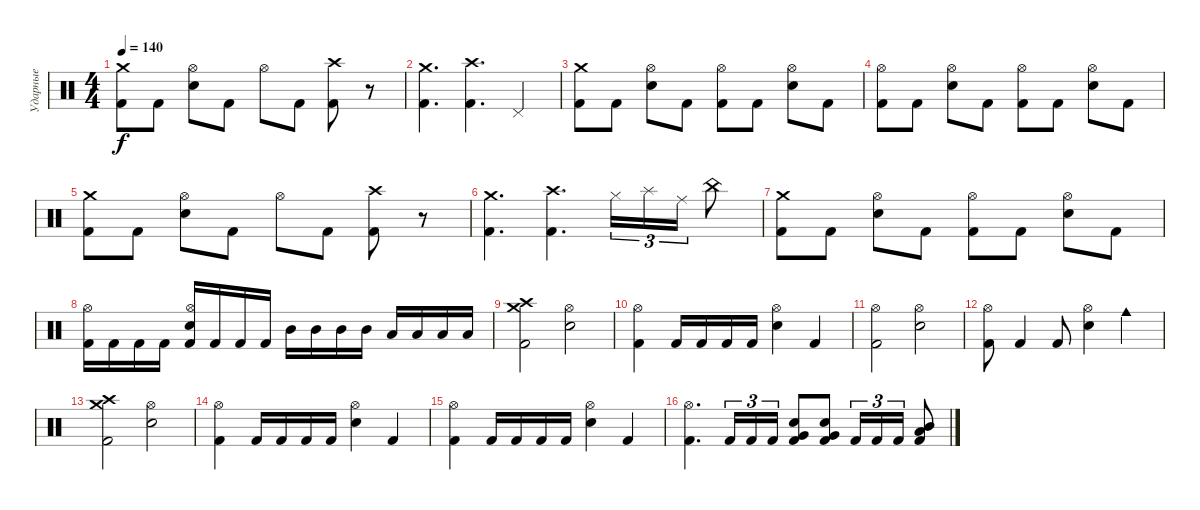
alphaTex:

\track ("Ударные" "Ударные") {instrument percussion}
\staff {score}
\articulation defaults
\ts (4 4)
\tempo 140
\clef neutral
\ks c
("Crash medium (hit)" "Kick (hit) 2").8{dy f} "Kick (hit) 2".8 ("Hi-Hat (open)" "Electric Snare (hit)").8 "Kick (hit) 2".8 "Hi-Hat (open)".8 "Kick (hit) 2".8 ("Crash high (hit)" "Kick (hit) 2").8 r.8 |
("Crash medium (hit)" "Kick (hit) 2").4{d} ("Crash high (hit)" "Kick (hit) 2").4{d} "Pedal Hi-Hat (hit)".4 |
("Crash medium (hit)" "Kick (hit) 2").8 "Kick (hit) 2".8 ("Hi-Hat (open)" "Electric Snare (hit)").8 "Kick (hit) 2".8 ("Hi-Hat (open)" "Kick (hit) 2").8 "Kick (hit) 2".8 ("Hi-Hat (open)" "Electric Snare (hit)").8 "Kick (hit) 2".8 |
("Hi-Hat (open)" "Kick (hit) 2").8 "Kick (hit) 2".8 ("Hi-Hat (open)" "Electric Snare (hit)").8 "Kick (hit) 2".8 ("Hi-Hat (open)" "Kick (hit) 2").8 "Kick (hit) 2".8 ("Hi-Hat (open)" "Electric Snare (hit)").8 "Kick (hit) 2".8 |
("Crash medium (hit)" "Kick (hit) 2").8 "Kick (hit) 2".8 ("Hi-Hat (open)" "Electric Snare (hit)").8 "Kick (hit) 2".8 "Hi-Hat (open)".8 "Kick (hit) 2".8 ("Crash high (hit)" "Kick (hit) 2").8 r.8 |
("Crash medium (hit)" "Kick (hit) 2").4{d} ("Crash high (hit)" "Kick (hit) 2").4{d} "Hi-Hat (closed)".16{tu (3 2)} "Splash (hit)".16{tu (3 2)} "Ride (middle)".16{tu (3 2)} "China (hit)".8 |
("Crash medium (hit)" "Kick (hit) 2").8 "Kick (hit) 2".8 ("Hi-Hat (open)" "Electric Snare (hit)").8 "Kick (hit) 2".8 ("Hi-Hat (open)" "Kick (hit) 2").8 "Kick (hit) 2".8 ("Hi-Hat (open)" "Electric Snare (hit)").8 "Kick (hit) 2".8 |
("Hi-Hat (open)" "Kick (hit) 2").16 "Kick (hit) 2".16 "Kick (hit) 2".16 "Kick (hit) 2".16 ("Hi-Hat (open)" "Electric Snare (hit)" "Kick (hit) 2").16 "Kick (hit) 2".16 "Kick (hit) 2".16 "Kick (hit) 2".16 "Mid Tom (hit)".16 "Mid Tom (hit)".16 "Mid Tom (hit)".16 "Mid Tom (hit)".16 "Low Tom (hit)".16 "Low Tom (hit)".16 "Low Tom (hit)".16 "Low Tom (hit)".16 |
("Crash medium (hit)" "Crash high (hit)" "Kick (hit) 2").2 ("Hi-Hat (open)" "Electric Snare (hit)").2 |
("Hi-Hat (open)" "Kick (hit) 2").4 "Kick (hit) 2".16 "Kick (hit) 2".16 "Kick (hit) 2".16 "Kick (hit) 2".16 ("Hi-Hat (open)" "Electric Snare (hit)").4 "Kick (hit) 2".4 |
("Hi-Hat (open)" "Kick (hit) 2").2 ("Hi-Hat (open)" "Electric Snare (hit)").2 |
("Hi-Hat (open)" "Kick (hit) 2").8 "Kick (hit) 2".4 "Kick (hit) 2".8 ("Hi-Hat (open)" "Electric Snare (hit)").4 "Cowbell medium (hit)".4 |
("Crash medium (hit)" "Crash high (hit)" "Kick (hit) 2").2 ("Hi-Hat (open)" "Electric Snare (hit)").2 |
("Hi-Hat (open)" "Kick (hit) 2").4 "Kick (hit) 2".16 "Kick (hit) 2".16 "Kick (hit) 2".16 "Kick (hit) 2".16 ("Hi-Hat (open)" "Electric Snare (hit)").4 "Kick (hit) 2".4 |
("Hi-Hat (open)" "Kick (hit) 2").4 "Kick (hit) 2".16 "Kick (hit) 2".16 "Kick (hit) 2".16 "Kick (hit) 2".16 ("Hi-Hat (open)" "Electric Snare (hit)").4 "Kick (hit) 2".4 |
("Hi-Hat (open)" "Kick (hit) 2").4{d} "Kick (hit) 2".16{tu (3 2)} "Kick (hit) 2".16{tu (3 2)} "Kick (hit) 2".16{tu (3 2)} ("Electric Snare (hit)" "Very Low Tom (hit)" "Kick (hit) 2").8 ("Electric Snare (hit)" "Very Low Tom (hit)" "Kick (hit) 2").8 "Kick (hit) 2".16{tu (3 2)} "Kick (hit) 2".16{tu (3 2)} "Kick (hit) 2".16{tu (3 2)} ("Mid Tom (hit)" "Low Tom (hit)" "Kick (hit) 2").8
